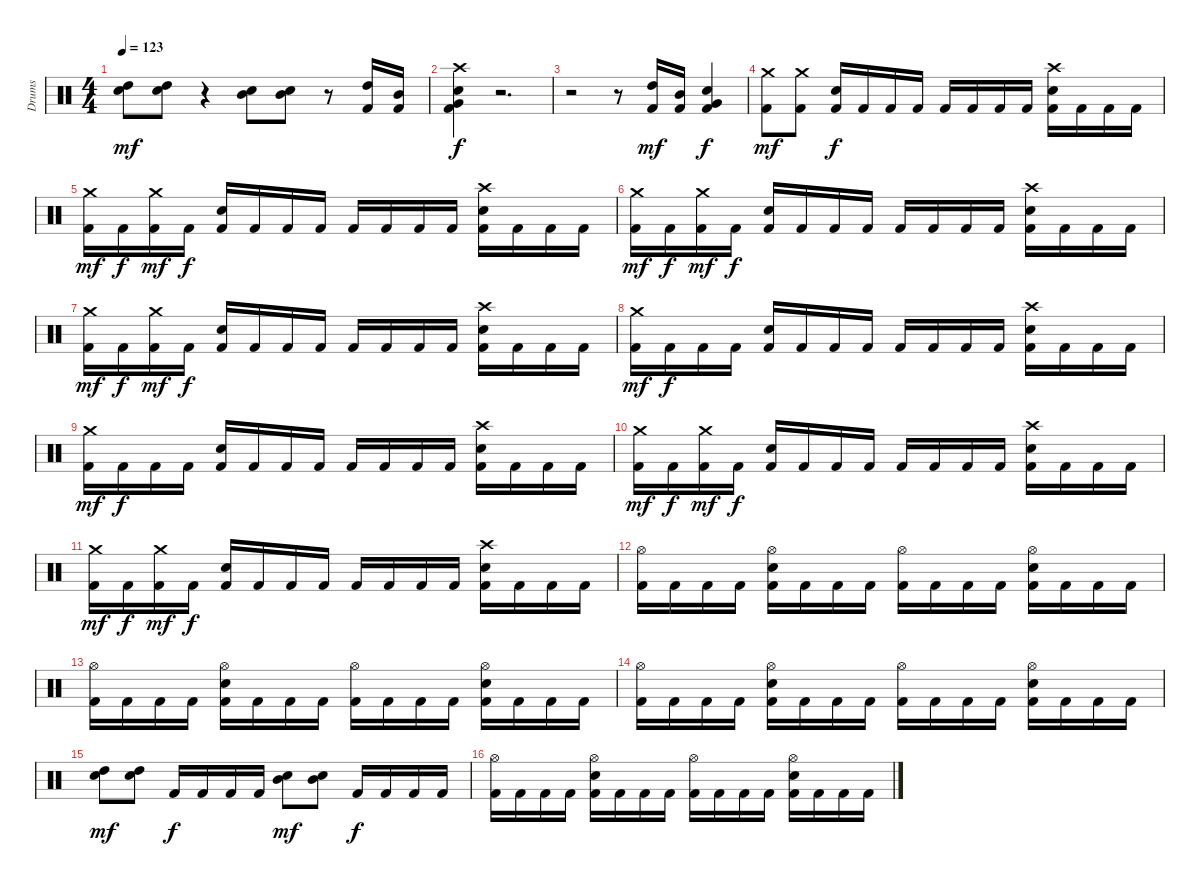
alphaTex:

\track ("Drums" "Drums") {instrument percussion}
\staff {score}
\articulation defaults
\ts (4 4)
\tempo 123
\clef neutral
\ks c
("Snare (hit) 2" "High Tom (hit)").8{dy mf} ("Snare (hit) 2" "High Tom (hit)").8 r.4 ("Snare (hit) 2" "Mid Tom (hit)").8 ("Snare (hit) 2" "Mid Tom (hit)").8 r.8 ("Kick (hit) 2" "High Tom (hit)").16 ("Kick (hit) 2" "Mid Tom (hit)").16 |
("Kick (hit) 2" "Snare (hit) 2" "Very Low Tom (hit)" "Crash high (hit)").4{dy f} r.2{d} |
r.2 r.8 ("Kick (hit) 2" "High Tom (hit)").16{dy mf} ("Kick (hit) 2" "Mid Tom (hit)").16 ("Kick (hit) 2" "Snare (hit) 2" "Very Low Tom (hit)").4{dy f} |
("Kick (hit) 2" "Crash medium (hit)").8{dy mf} ("Kick (hit) 2" "Crash medium (hit)").8 ("Kick (hit) 2" "Snare (hit) 2").16{dy f} "Kick (hit) 2".16 "Kick (hit) 2".16 "Kick (hit) 2".16 "Kick (hit) 2".16 "Kick (hit) 2".16 "Kick (hit) 2".16 "Kick (hit) 2".16 ("Kick (hit) 2" "Snare (hit) 2" "Crash high (hit)").16 "Kick (hit) 2".16 "Kick (hit) 2".16 "Kick (hit) 2".16 |
("Kick (hit) 2" "Crash medium (hit)").16{dy mf} "Kick (hit) 2".16{dy f} ("Kick (hit) 2" "Crash medium (hit)").16{dy mf} "Kick (hit) 2".16{dy f} ("Kick (hit) 2" "Snare (hit) 2").16 "Kick (hit) 2".16 "Kick (hit) 2".16 "Kick (hit) 2".16 "Kick (hit) 2".16 "Kick (hit) 2".16 "Kick (hit) 2".16 "Kick (hit) 2".16 ("Kick (hit) 2" "Snare (hit) 2" "Crash high (hit)").16 "Kick (hit) 2".16 "Kick (hit) 2".16 "Kick (hit) 2".16 |
("Kick (hit) 2" "Crash medium (hit)").16{dy mf} "Kick (hit) 2".16{dy f} ("Kick (hit) 2" "Crash medium (hit)").16{dy mf} "Kick (hit) 2".16{dy f} ("Kick (hit) 2" "Snare (hit) 2").16 "Kick (hit) 2".16 "Kick (hit) 2".16 "Kick (hit) 2".16 "Kick (hit) 2".16 "Kick (hit) 2".16 "Kick (hit) 2".16 "Kick (hit) 2".16 ("Kick (hit) 2" "Snare (hit) 2" "Crash high (hit)").16 "Kick (hit) 2".16 "Kick (hit) 2".16 "Kick (hit) 2".16 |
("Kick (hit) 2" "Crash medium (hit)").16{dy mf} "Kick (hit) 2".16{dy f} ("Kick (hit) 2" "Crash medium (hit)").16{dy mf} "Kick (hit) 2".16{dy f} ("Kick (hit) 2" "Snare (hit) 2").16 "Kick (hit) 2".16 "Kick (hit) 2".16 "Kick (hit) 2".16 "Kick (hit) 2".16 "Kick (hit) 2".16 "Kick (hit) 2".16 "Kick (hit) 2".16 ("Kick (hit) 2" "Snare (hit) 2" "Crash high (hit)").16 "Kick (hit) 2".16 "Kick (hit) 2".16 "Kick (hit) 2".16 |
("Kick (hit) 2" "Crash medium (hit)").16{dy mf} "Kick (hit) 2".16{dy f} "Kick (hit) 2".16 "Kick (hit) 2".16 ("Kick (hit) 2" "Snare (hit) 2").16 "Kick (hit) 2".16 "Kick (hit) 2".16 "Kick (hit) 2".16 "Kick (hit) 2".16 "Kick (hit) 2".16 "Kick (hit) 2".16 "Kick (hit) 2".16 ("Kick (hit) 2" "Snare (hit) 2" "Crash high (hit)").16 "Kick (hit) 2".16 "Kick (hit) 2".16 "Kick (hit) 2".16 |
("Kick (hit) 2" "Crash medium (hit)").16{dy mf} "Kick (hit) 2".16{dy f} "Kick (hit) 2".16 "Kick (hit) 2".16 ("Kick (hit) 2" "Snare (hit) 2").16 "Kick (hit) 2".16 "Kick (hit) 2".16 "Kick (hit) 2".16 "Kick (hit) 2".16 "Kick (hit) 2".16 "Kick (hit) 2".16 "Kick (hit) 2".16 ("Kick (hit) 2" "Snare (hit) 2" "Crash high (hit)").16 "Kick (hit) 2".16 "Kick (hit) 2".16 "Kick (hit) 2".16 |
("Kick (hit) 2" "Crash medium (hit)").16{dy mf} "Kick (hit) 2".16{dy f} ("Kick (hit) 2" "Crash medium (hit)").16{dy mf} "Kick (hit) 2".16{dy f} ("Kick (hit) 2" "Snare (hit) 2").16 "Kick (hit) 2".16 "Kick (hit) 2".16 "Kick (hit) 2".16 "Kick (hit) 2".16 "Kick (hit) 2".16 "Kick (hit) 2".16 "Kick (hit) 2".16 ("Kick (hit) 2" "Snare (hit) 2" "Crash high (hit)").16 "Kick (hit) 2".16 "Kick (hit) 2".16 "Kick (hit) 2".16 |
("Kick (hit) 2" "Crash medium (hit)").16{dy mf} "Kick (hit) 2".16{dy f} ("Kick (hit) 2" "Crash medium (hit)").16{dy mf} "Kick (hit) 2".16{dy f} ("Kick (hit) 2" "Snare (hit) 2").16 "Kick (hit) 2".16 "Kick (hit) 2".16 "Kick (hit) 2".16 "Kick (hit) 2".16 "Kick (hit) 2".16 "Kick (hit) 2".16 "Kick (hit) 2".16 ("Kick (hit) 2" "Snare (hit) 2" "Crash high (hit)").16 "Kick (hit) 2".16 "Kick (hit) 2".16 "Kick (hit) 2".16 |
("Kick (hit) 2" "Hi-Hat (open)").16 "Kick (hit) 2".16 "Kick (hit) 2".16 "Kick (hit) 2".16 ("Kick (hit) 2" "Snare (hit) 2" "Hi-Hat (open)").16 "Kick (hit) 2".16 "Kick (hit) 2".16 "Kick (hit) 2".16 ("Kick (hit) 2" "Hi-Hat (open)").16 "Kick (hit) 2".16 "Kick (hit) 2".16 "Kick (hit) 2".16 ("Kick (hit) 2" "Snare (hit) 2" "Hi-Hat (open)").16 "Kick (hit) 2".16 "Kick (hit) 2".16 "Kick (hit) 2".16 |
("Kick (hit) 2" "Hi-Hat (open)").16 "Kick (hit) 2".16 "Kick (hit) 2".16 "Kick (hit) 2".16 ("Kick (hit) 2" "Snare (hit) 2" "Hi-Hat (open)").16 "Kick (hit) 2".16 "Kick (hit) 2".16 "Kick (hit) 2".16 ("Kick (hit) 2" "Hi-Hat (open)").16 "Kick (hit) 2".16 "Kick (hit) 2".16 "Kick (hit) 2".16 ("Kick (hit) 2" "Snare (hit) 2" "Hi-Hat (open)").16 "Kick (hit) 2".16 "Kick (hit) 2".16 "Kick (hit) 2".16 |
("Kick (hit) 2" "Hi-Hat (open)").16 "Kick (hit) 2".16 "Kick (hit) 2".16 "Kick (hit) 2".16 ("Kick (hit) 2" "Snare (hit) 2" "Hi-Hat (open)").16 "Kick (hit) 2".16 "Kick (hit) 2".16 "Kick (hit) 2".16 ("Kick (hit) 2" "Hi-Hat (open)").16 "Kick (hit) 2".16 "Kick (hit) 2".16 "Kick (hit) 2".16 ("Kick (hit) 2" "Snare (hit) 2" "Hi-Hat (open)").16 "Kick (hit) 2".16 "Kick (hit) 2".16 "Kick (hit) 2".16 |
("Snare (hit) 2" "High Tom (hit)").8{dy mf} ("Snare (hit) 2" "High Tom (hit)").8 "Kick (hit) 2".16{dy f} "Kick (hit) 2".16 "Kick (hit) 2".16 "Kick (hit) 2".16 ("Snare (hit) 2" "Mid Tom (hit)").8{dy mf} ("Snare (hit) 2" "Mid Tom (hit)").8 "Kick (hit) 2".16{dy f} "Kick (hit) 2".16 "Kick (hit) 2".16 "Kick (hit) 2".16 |
("Kick (hit) 2" "Hi-Hat (open)").16 "Kick (hit) 2".16 "Kick (hit) 2".16 "Kick (hit) 2".16 ("Kick (hit) 2" "Snare (hit) 2" "Hi-Hat (open)").16 "Kick (hit) 2".16 "Kick (hit) 2".16 "Kick (hit) 2".16 ("Kick (hit) 2" "Hi-Hat (open)").16 "Kick (hit) 2".16 "Kick (hit) 2".16 "Kick (hit) 2".16 ("Kick (hit) 2" "Snare (hit) 2" "Hi-Hat (open)").16 "Kick (hit) 2".16 "Kick (hit) 2".16 "Kick (hit) 2".16
